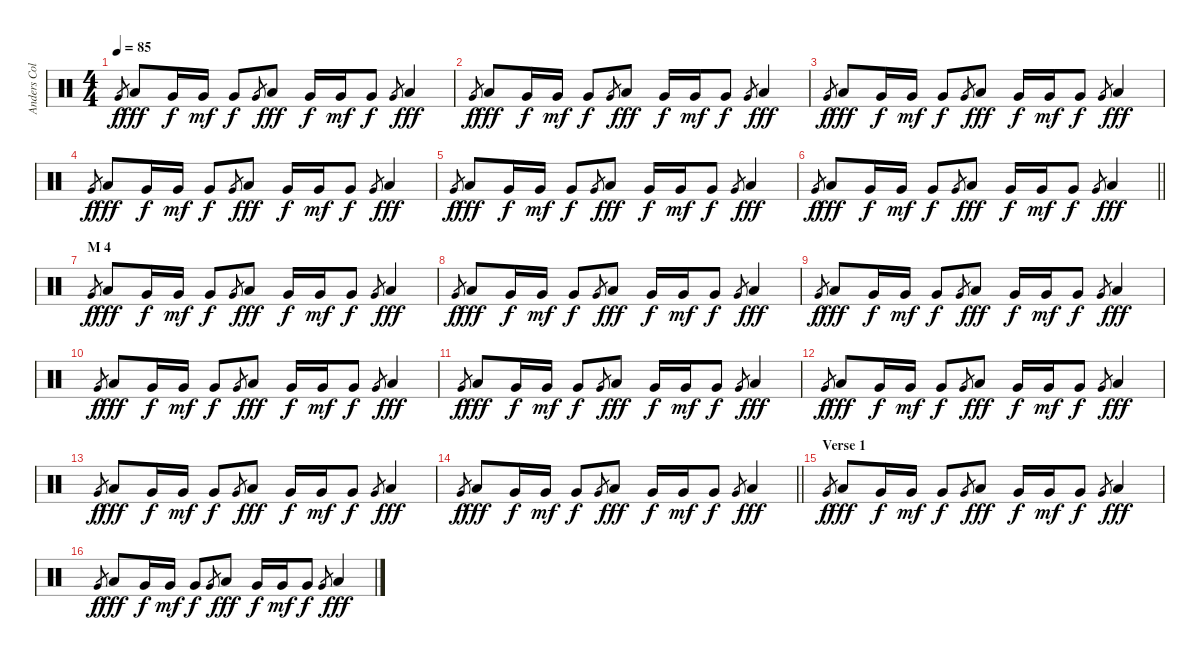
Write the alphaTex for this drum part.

\track ("Anders Colsefni" "Anders Col") {instrument percussion}
\staff {score}
\articulation defaults
\ts (4 4)
\tempo 85
\clef neutral
\ks c "Very Low Tom (hit)".8{gr dy f} "Low Tom (hit)".8{dy fff} "Very Low Tom (hit)".16{dy f} "Very Low Tom (hit)".16{dy mf} "Very Low Tom (hit)".8{dy f} "Very Low Tom (hit)".8{gr} "Low Tom (hit)".8{dy fff} "Very Low Tom (hit)".16{dy f} "Very Low Tom (hit)".16{dy mf} "Very Low Tom (hit)".8{dy f} "Very Low Tom (hit)".8{gr} "Low Tom (hit)".4{dy fff}
|
"Very Low Tom (hit)".8{gr dy f} "Low Tom (hit)".8{dy fff} "Very Low Tom (hit)".16{dy f} "Very Low Tom (hit)".16{dy mf} "Very Low Tom (hit)".8{dy f} "Very Low Tom (hit)".8{gr} "Low Tom (hit)".8{dy fff} "Very Low Tom (hit)".16{dy f} "Very Low Tom (hit)".16{dy mf} "Very Low Tom (hit)".8{dy f} "Very Low Tom (hit)".8{gr} "Low Tom (hit)".4{dy fff} |
"Very Low Tom (hit)".8{gr dy f} "Low Tom (hit)".8{dy fff} "Very Low Tom (hit)".16{dy f} "Very Low Tom (hit)".16{dy mf} "Very Low Tom (hit)".8{dy f} "Very Low Tom (hit)".8{gr} "Low Tom (hit)".8{dy fff} "Very Low Tom (hit)".16{dy f} "Very Low Tom (hit)".16{dy mf} "Very Low Tom (hit)".8{dy f} "Very Low Tom (hit)".8{gr} "Low Tom (hit)".4{dy fff} |
"Very Low Tom (hit)".8{gr dy f} "Low Tom (hit)".8{dy fff} "Very Low Tom (hit)".16{dy f} "Very Low Tom (hit)".16{dy mf} "Very Low Tom (hit)".8{dy f} "Very Low Tom (hit)".8{gr} "Low Tom (hit)".8{dy fff} "Very Low Tom (hit)".16{dy f} "Very Low Tom (hit)".16{dy mf} "Very Low Tom (hit)".8{dy f} "Very Low Tom (hit)".8{gr} "Low Tom (hit)".4{dy fff} |
"Very Low Tom (hit)".8{gr dy f} "Low Tom (hit)".8{dy fff} "Very Low Tom (hit)".16{dy f} "Very Low Tom (hit)".16{dy mf} "Very Low Tom (hit)".8{dy f} "Very Low Tom (hit)".8{gr} "Low Tom (hit)".8{dy fff} "Very Low Tom (hit)".16{dy f} "Very Low Tom (hit)".16{dy mf} "Very Low Tom (hit)".8{dy f} "Very Low Tom (hit)".8{gr} "Low Tom (hit)".4{dy fff} |
\barLineRight lightlight "Very Low Tom (hit)".8{gr dy f} "Low Tom (hit)".8{dy fff} "Very Low Tom (hit)".16{dy f} "Very Low Tom (hit)".16{dy mf} "Very Low Tom (hit)".8{dy f} "Very Low Tom (hit)".8{gr} "Low Tom (hit)".8{dy fff} "Very Low Tom (hit)".16{dy f} "Very Low Tom (hit)".16{dy mf} "Very Low Tom (hit)".8{dy f} "Very Low Tom (hit)".8{gr} "Low Tom (hit)".4{dy fff}
|
\section ("" "M 4")
"Very Low Tom (hit)".8{gr dy f} "Low Tom (hit)".8{dy fff} "Very Low Tom (hit)".16{dy f} "Very Low Tom (hit)".16{dy mf} "Very Low Tom (hit)".8{dy f} "Very Low Tom (hit)".8{gr} "Low Tom (hit)".8{dy fff} "Very Low Tom (hit)".16{dy f} "Very Low Tom (hit)".16{dy mf} "Very Low Tom (hit)".8{dy f} "Very Low Tom (hit)".8{gr} "Low Tom (hit)".4{dy fff} |
"Very Low Tom (hit)".8{gr dy f} "Low Tom (hit)".8{dy fff} "Very Low Tom (hit)".16{dy f} "Very Low Tom (hit)".16{dy mf} "Very Low Tom (hit)".8{dy f} "Very Low Tom (hit)".8{gr} "Low Tom (hit)".8{dy fff} "Very Low Tom (hit)".16{dy f} "Very Low Tom (hit)".16{dy mf} "Very Low Tom (hit)".8{dy f} "Very Low Tom (hit)".8{gr} "Low Tom (hit)".4{dy fff} |
"Very Low Tom (hit)".8{gr dy f} "Low Tom (hit)".8{dy fff} "Very Low Tom (hit)".16{dy f} "Very Low Tom (hit)".16{dy mf} "Very Low Tom (hit)".8{dy f} "Very Low Tom (hit)".8{gr} "Low Tom (hit)".8{dy fff} "Very Low Tom (hit)".16{dy f} "Very Low Tom (hit)".16{dy mf} "Very Low Tom (hit)".8{dy f} "Very Low Tom (hit)".8{gr} "Low Tom (hit)".4{dy fff} |
"Very Low Tom (hit)".8{gr dy f} "Low Tom (hit)".8{dy fff} "Very Low Tom (hit)".16{dy f} "Very Low Tom (hit)".16{dy mf} "Very Low Tom (hit)".8{dy f} "Very Low Tom (hit)".8{gr} "Low Tom (hit)".8{dy fff} "Very Low Tom (hit)".16{dy f} "Very Low Tom (hit)".16{dy mf} "Very Low Tom (hit)".8{dy f} "Very Low Tom (hit)".8{gr} "Low Tom (hit)".4{dy fff} |
"Very Low Tom (hit)".8{gr dy f} "Low Tom (hit)".8{dy fff} "Very Low Tom (hit)".16{dy f} "Very Low Tom (hit)".16{dy mf} "Very Low Tom (hit)".8{dy f} "Very Low Tom (hit)".8{gr} "Low Tom (hit)".8{dy fff} "Very Low Tom (hit)".16{dy f} "Very Low Tom (hit)".16{dy mf} "Very Low Tom (hit)".8{dy f} "Very Low Tom (hit)".8{gr} "Low Tom (hit)".4{dy fff} |
"Very Low Tom (hit)".8{gr dy f} "Low Tom (hit)".8{dy fff} "Very Low Tom (hit)".16{dy f} "Very Low Tom (hit)".16{dy mf} "Very Low Tom (hit)".8{dy f} "Very Low Tom (hit)".8{gr} "Low Tom (hit)".8{dy fff} "Very Low Tom (hit)".16{dy f} "Very Low Tom (hit)".16{dy mf} "Very Low Tom (hit)".8{dy f} "Very Low Tom (hit)".8{gr} "Low Tom (hit)".4{dy fff} |
"Very Low Tom (hit)".8{gr dy f} "Low Tom (hit)".8{dy fff} "Very Low Tom (hit)".16{dy f} "Very Low Tom (hit)".16{dy mf} "Very Low Tom (hit)".8{dy f} "Very Low Tom (hit)".8{gr} "Low Tom (hit)".8{dy fff} "Very Low Tom (hit)".16{dy f} "Very Low Tom (hit)".16{dy mf} "Very Low Tom (hit)".8{dy f} "Very Low Tom (hit)".8{gr} "Low Tom (hit)".4{dy fff} |
\barLineRight lightlight "Very Low Tom (hit)".8{gr dy f} "Low Tom (hit)".8{dy fff} "Very Low Tom (hit)".16{dy f} "Very Low Tom (hit)".16{dy mf} "Very Low Tom (hit)".8{dy f} "Very Low Tom (hit)".8{gr} "Low Tom (hit)".8{dy fff} "Very Low Tom (hit)".16{dy f} "Very Low Tom (hit)".16{dy mf} "Very Low Tom (hit)".8{dy f} "Very Low Tom (hit)".8{gr} "Low Tom (hit)".4{dy fff}
|
\section ("" "Verse 1")
"Very Low Tom (hit)".8{gr dy f} "Low Tom (hit)".8{dy fff} "Very Low Tom (hit)".16{dy f} "Very Low Tom (hit)".16{dy mf} "Very Low Tom (hit)".8{dy f} "Very Low Tom (hit)".8{gr} "Low Tom (hit)".8{dy fff} "Very Low Tom (hit)".16{dy f} "Very Low Tom (hit)".16{dy mf} "Very Low Tom (hit)".8{dy f} "Very Low Tom (hit)".8{gr} "Low Tom (hit)".4{dy fff} |
"Very Low Tom (hit)".8{gr dy f} "Low Tom (hit)".8{dy fff} "Very Low Tom (hit)".16{dy f} "Very Low Tom (hit)".16{dy mf} "Very Low Tom (hit)".8{dy f} "Very Low Tom (hit)".8{gr} "Low Tom (hit)".8{dy fff} "Very Low Tom (hit)".16{dy f} "Very Low Tom (hit)".16{dy mf} "Very Low Tom (hit)".8{dy f} "Very Low Tom (hit)".8{gr} "Low Tom (hit)".4{dy fff}
